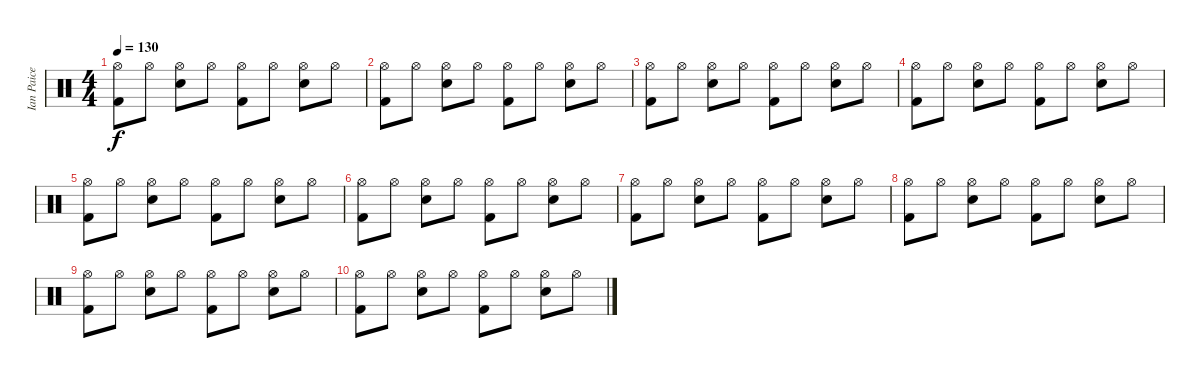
\track ("Ian Paice" "Ian Paice") {instrument percussion}
\staff {score}
\articulation defaults
\ts (4 4)
\tempo 130
\clef neutral
\ks c
("Hi-Hat (open)" "Kick (hit) 2").8{dy f} "Hi-Hat (open)".8 ("Hi-Hat (open)" "Snare (hit) 2").8 "Hi-Hat (open)".8 ("Hi-Hat (open)" "Kick (hit) 2").8 "Hi-Hat (open)".8 ("Hi-Hat (open)" "Snare (hit) 2").8 "Hi-Hat (open)".8 |
("Hi-Hat (open)" "Kick (hit) 2").8 "Hi-Hat (open)".8 ("Hi-Hat (open)" "Snare (hit) 2").8 "Hi-Hat (open)".8 ("Hi-Hat (open)" "Kick (hit) 2").8 "Hi-Hat (open)".8 ("Hi-Hat (open)" "Snare (hit) 2").8 "Hi-Hat (open)".8 |
("Hi-Hat (open)" "Kick (hit) 2").8 "Hi-Hat (open)".8 ("Hi-Hat (open)" "Snare (hit) 2").8 "Hi-Hat (open)".8 ("Hi-Hat (open)" "Kick (hit) 2").8 "Hi-Hat (open)".8 ("Hi-Hat (open)" "Snare (hit) 2").8 "Hi-Hat (open)".8 |
("Hi-Hat (open)" "Kick (hit) 2").8 "Hi-Hat (open)".8 ("Hi-Hat (open)" "Snare (hit) 2").8 "Hi-Hat (open)".8 ("Hi-Hat (open)" "Kick (hit) 2").8 "Hi-Hat (open)".8 ("Hi-Hat (open)" "Snare (hit) 2").8 "Hi-Hat (open)".8 |
("Hi-Hat (open)" "Kick (hit) 2").8 "Hi-Hat (open)".8 ("Hi-Hat (open)" "Snare (hit) 2").8 "Hi-Hat (open)".8 ("Hi-Hat (open)" "Kick (hit) 2").8 "Hi-Hat (open)".8 ("Hi-Hat (open)" "Snare (hit) 2").8 "Hi-Hat (open)".8 |
("Hi-Hat (open)" "Kick (hit) 2").8 "Hi-Hat (open)".8 ("Hi-Hat (open)" "Snare (hit) 2").8 "Hi-Hat (open)".8 ("Hi-Hat (open)" "Kick (hit) 2").8 "Hi-Hat (open)".8 ("Hi-Hat (open)" "Snare (hit) 2").8 "Hi-Hat (open)".8 |
("Hi-Hat (open)" "Kick (hit) 2").8 "Hi-Hat (open)".8 ("Hi-Hat (open)" "Snare (hit) 2").8 "Hi-Hat (open)".8 ("Hi-Hat (open)" "Kick (hit) 2").8 "Hi-Hat (open)".8 ("Hi-Hat (open)" "Snare (hit) 2").8 "Hi-Hat (open)".8 |
("Hi-Hat (open)" "Kick (hit) 2").8 "Hi-Hat (open)".8 ("Hi-Hat (open)" "Snare (hit) 2").8 "Hi-Hat (open)".8 ("Hi-Hat (open)" "Kick (hit) 2").8 "Hi-Hat (open)".8 ("Hi-Hat (open)" "Snare (hit) 2").8 "Hi-Hat (open)".8 |
("Hi-Hat (open)" "Kick (hit) 2").8 "Hi-Hat (open)".8 ("Hi-Hat (open)" "Snare (hit) 2").8 "Hi-Hat (open)".8 ("Hi-Hat (open)" "Kick (hit) 2").8 "Hi-Hat (open)".8 ("Hi-Hat (open)" "Snare (hit) 2").8 "Hi-Hat (open)".8 |
("Hi-Hat (open)" "Kick (hit) 2").8 "Hi-Hat (open)".8 ("Hi-Hat (open)" "Snare (hit) 2").8 "Hi-Hat (open)".8 ("Hi-Hat (open)" "Kick (hit) 2").8 "Hi-Hat (open)".8 ("Hi-Hat (open)" "Snare (hit) 2").8 "Hi-Hat (open)".8
